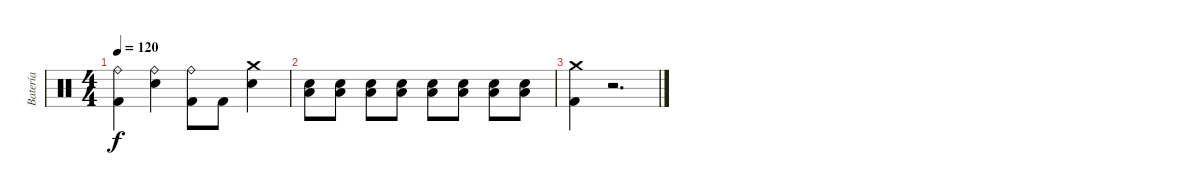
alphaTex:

\track ("Batería" "Batería") {instrument percussion}
\staff {score}
\articulation defaults
\ts (4 4)
\tempo 120
\clef neutral
\ks c
("Kick (hit) 2" "Ride (bell)").4{dy f} ("Electric Snare (hit)" "Ride (bell)").4 ("Kick (hit) 2" "Ride (bell)").8 "Kick (hit) 2".8 ("Electric Snare (hit)" "Crash medium (hit)").4 |
("Low Tom (hit)" "Electric Snare (hit)").8 ("Low Tom (hit)" "Electric Snare (hit)").8 ("Low Tom (hit)" "Electric Snare (hit)").8 ("Low Tom (hit)" "Electric Snare (hit)").8 ("Low Tom (hit)" "Electric Snare (hit)").8 ("Low Tom (hit)" "Electric Snare (hit)").8 ("Low Tom (hit)" "Electric Snare (hit)").8 ("Low Tom (hit)" "Electric Snare (hit)").8 |
("Kick (hit) 2" "Crash medium (hit)").4 r.2{d}
